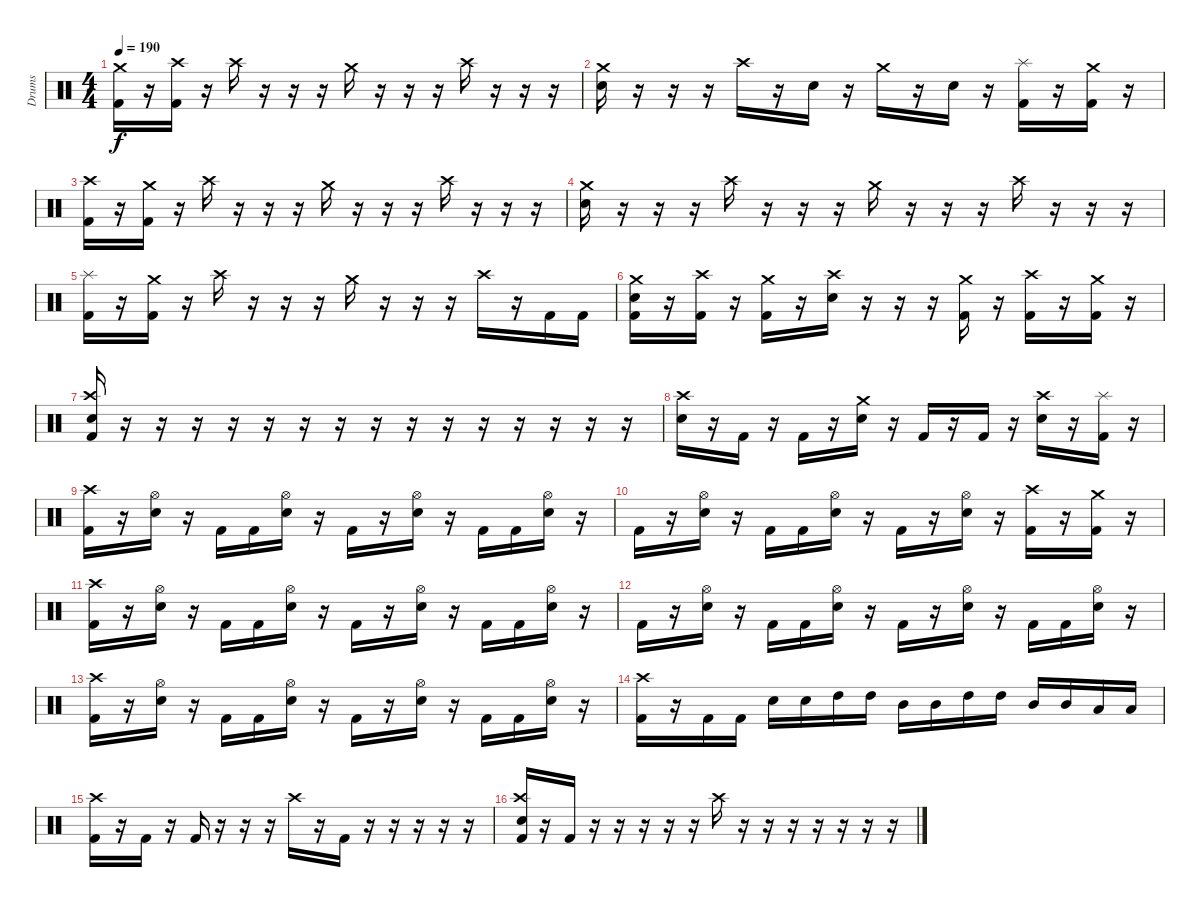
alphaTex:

\track ("Drums" "Drums") {instrument percussion}
\staff {score}
\articulation defaults
\ts (4 4)
\tempo 190
\clef neutral
\ks c
("Crash medium (hit)" "Kick (hit) 2").16{dy f} r.16 ("Crash high (hit)" "Kick (hit) 2").16 r.16 "Crash high (hit)".16 r.16 r.16 r.16 "Crash medium (hit)".16 r.16 r.16 r.16 "Crash high (hit)".16 r.16 r.16 r.16 |
("Crash medium (hit)" "Electric Snare (hit)").16 r.16 r.16 r.16 "Crash high (hit)".16 r.16 "Electric Snare (hit)".16 r.16 "Crash medium (hit)".16 r.16 "Electric Snare (hit)".16 r.16 ("Splash (hit)" "Kick (hit) 2").16 r.16 ("Crash medium (hit)" "Kick (hit) 2").16 r.16 |
("Crash high (hit)" "Kick (hit) 2").16 r.16 ("Crash medium (hit)" "Kick (hit) 2").16 r.16 "Crash high (hit)".16 r.16 r.16 r.16 "Crash medium (hit)".16 r.16 r.16 r.16 "Crash high (hit)".16 r.16 r.16 r.16 |
("Crash medium (hit)" "Electric Snare (hit)").16 r.16 r.16 r.16 "Crash high (hit)".16 r.16 r.16 r.16 "Crash medium (hit)".16 r.16 r.16 r.16 "Crash high (hit)".16 r.16 r.16 r.16 |
("Splash (hit)" "Kick (hit) 2").16 r.16 ("Crash medium (hit)" "Kick (hit) 2").16 r.16 "Crash high (hit)".16 r.16 r.16 r.16 "Crash medium (hit)".16 r.16 r.16 r.16 "Crash high (hit)".16 r.16 "Kick (hit) 2".16 "Kick (hit) 2".16 |
("Crash medium (hit)" "Electric Snare (hit)" "Kick (hit) 2").16 r.16 ("Crash high (hit)" "Kick (hit) 2").16 r.16 ("Crash medium (hit)" "Kick (hit) 2").16 r.16 ("Crash high (hit)" "Electric Snare (hit)").16 r.16 r.16 r.16 ("Crash medium (hit)" "Kick (hit) 2").16 r.16 ("Crash high (hit)" "Kick (hit) 2").16 r.16 ("Crash medium (hit)" "Kick (hit) 2").16 r.16 |
("Crash high (hit)" "Electric Snare (hit)" "Kick (hit) 2").16 r.16 r.16 r.16 r.16 r.16 r.16 r.16 r.16 r.16 r.16 r.16 r.16 r.16 r.16 r.16 |
("Crash high (hit)" "Electric Snare (hit)").16 r.16 "Kick (hit) 2".16 r.16 "Kick (hit) 2".16 r.16 ("Crash medium (hit)" "Electric Snare (hit)").16 r.16 "Kick (hit) 2".16 r.16 "Kick (hit) 2".16 r.16 ("Crash high (hit)" "Electric Snare (hit)").16 r.16 ("Splash (hit)" "Kick (hit) 2").16 r.16 |
("Crash high (hit)" "Kick (hit) 2").16 r.16 ("Hi-Hat (open)" "Electric Snare (hit)").16 r.16 "Kick (hit) 2".16 "Kick (hit) 2".16 ("Hi-Hat (open)" "Electric Snare (hit)").16 r.16 "Kick (hit) 2".16 r.16 ("Hi-Hat (open)" "Electric Snare (hit)").16 r.16 "Kick (hit) 2".16 "Kick (hit) 2".16 ("Hi-Hat (open)" "Electric Snare (hit)").16 r.16 |
"Kick (hit) 2".16 r.16 ("Hi-Hat (open)" "Electric Snare (hit)").16 r.16 "Kick (hit) 2".16 "Kick (hit) 2".16 ("Hi-Hat (open)" "Electric Snare (hit)").16 r.16 "Kick (hit) 2".16 r.16 ("Hi-Hat (open)" "Electric Snare (hit)").16 r.16 ("Crash high (hit)" "Kick (hit) 2").16 r.16 ("Crash medium (hit)" "Kick (hit) 2").16 r.16 |
("Crash high (hit)" "Kick (hit) 2").16 r.16 ("Hi-Hat (open)" "Electric Snare (hit)").16 r.16 "Kick (hit) 2".16 "Kick (hit) 2".16 ("Hi-Hat (open)" "Electric Snare (hit)").16 r.16 "Kick (hit) 2".16 r.16 ("Hi-Hat (open)" "Electric Snare (hit)").16 r.16 "Kick (hit) 2".16 "Kick (hit) 2".16 ("Hi-Hat (open)" "Electric Snare (hit)").16 r.16 |
"Kick (hit) 2".16 r.16 ("Hi-Hat (open)" "Electric Snare (hit)").16 r.16 "Kick (hit) 2".16 "Kick (hit) 2".16 ("Hi-Hat (open)" "Electric Snare (hit)").16 r.16 "Kick (hit) 2".16 r.16 ("Hi-Hat (open)" "Electric Snare (hit)").16 r.16 "Kick (hit) 2".16 "Kick (hit) 2".16 ("Hi-Hat (open)" "Electric Snare (hit)").16 r.16 |
("Crash high (hit)" "Kick (hit) 2").16 r.16 ("Hi-Hat (open)" "Electric Snare (hit)").16 r.16 "Kick (hit) 2".16 "Kick (hit) 2".16 ("Hi-Hat (open)" "Electric Snare (hit)").16 r.16 "Kick (hit) 2".16 r.16 ("Hi-Hat (open)" "Electric Snare (hit)").16 r.16 "Kick (hit) 2".16 "Kick (hit) 2".16 ("Hi-Hat (open)" "Electric Snare (hit)").16 r.16 |
("Crash high (hit)" "Kick (hit) 2").16 r.16 "Kick (hit) 2".16 "Kick (hit) 2".16 "Electric Snare (hit)".16 "Electric Snare (hit)".16 "High Tom (hit)".16 "High Tom (hit)".16 "Mid Tom (hit)".16 "Mid Tom (hit)".16 "High Tom (hit)".16 "High Tom (hit)".16 "Mid Tom (hit)".16 "Mid Tom (hit)".16 "Low Tom (hit)".16 "Low Tom (hit)".16 |
("Crash high (hit)" "Kick (hit) 2").16 r.16 "Kick (hit) 2".16 r.16 "Kick (hit) 2".16 r.16 r.16 r.16 "Crash high (hit)".16 r.16 "Kick (hit) 2".16 r.16 r.16 r.16 r.16 r.16 |
("Crash high (hit)" "Electric Snare (hit)" "Kick (hit) 2").16 r.16 "Kick (hit) 2".16 r.16 r.16 r.16 r.16 r.16 "Crash high (hit)".16 r.16 r.16 r.16 r.16 r.16 r.16 r.16
